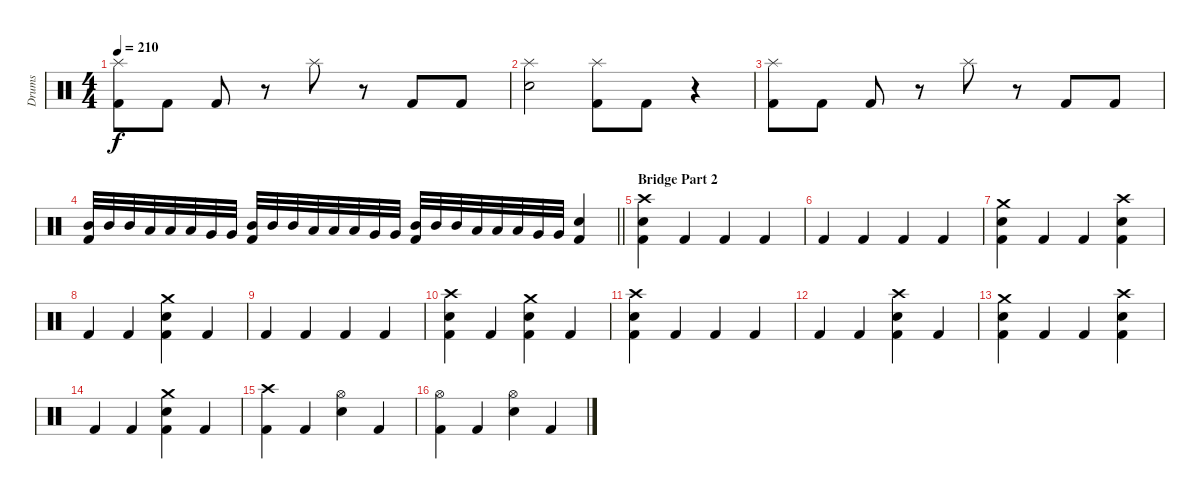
\track ("Drums" "Drums") {instrument percussion}
\staff {score}
\articulation defaults
\ts (4 4)
\tempo 210
\clef neutral
\ks c
("Splash (hit)" "Kick (hit) 2").8{dy f} "Kick (hit) 2".8 "Kick (hit) 2".8 r.8 "Splash (hit)".8 r.8 "Kick (hit) 2".8 "Kick (hit) 2".8 |
("Splash (hit)" "Snare (hit) 2").2 ("Splash (hit)" "Kick (hit) 2").8 "Kick (hit) 2".8 r.4 |
("Splash (hit)" "Kick (hit) 2").8 "Kick (hit) 2".8 "Kick (hit) 2".8 r.8 "Splash (hit)".8 r.8 "Kick (hit) 2".8 "Kick (hit) 2".8 |
\barLineRight lightlight
("Mid Tom (hit)" "Kick (hit) 2").32 "Mid Tom (hit)".32 "Mid Tom (hit)".32 "Low Tom (hit)".32 "Low Tom (hit)".32 "Low Tom (hit)".32 "Very Low Tom (hit)".32 "Very Low Tom (hit)".32 ("Mid Tom (hit)" "Kick (hit) 2").32 "Mid Tom (hit)".32 "Mid Tom (hit)".32 "Low Tom (hit)".32 "Low Tom (hit)".32 "Low Tom (hit)".32 "Very Low Tom (hit)".32 "Very Low Tom (hit)".32 ("Mid Tom (hit)" "Kick (hit) 2").32 "Mid Tom (hit)".32 "Mid Tom (hit)".32 "Low Tom (hit)".32 "Low Tom (hit)".32 "Low Tom (hit)".32 "Very Low Tom (hit)".32 "Very Low Tom (hit)".32 ("Snare (hit) 2" "Kick (hit) 2").4 |
\section ("" "Bridge Part 2")
("Crash high (hit)" "Snare (hit) 2" "Kick (hit) 2").4 "Kick (hit) 2".4 "Kick (hit) 2".4 "Kick (hit) 2".4 |
"Kick (hit) 2".4 "Kick (hit) 2".4 "Kick (hit) 2".4 "Kick (hit) 2".4 |
("Crash medium (hit)" "Snare (hit) 2" "Kick (hit) 2").4 "Kick (hit) 2".4 "Kick (hit) 2".4 ("Crash high (hit)" "Snare (hit) 2" "Kick (hit) 2").4 |
"Kick (hit) 2".4 "Kick (hit) 2".4 ("Crash medium (hit)" "Snare (hit) 2" "Kick (hit) 2").4 "Kick (hit) 2".4 |
"Kick (hit) 2".4 "Kick (hit) 2".4 "Kick (hit) 2".4 "Kick (hit) 2".4 |
("Crash high (hit)" "Snare (hit) 2" "Kick (hit) 2").4 "Kick (hit) 2".4 ("Crash medium (hit)" "Snare (hit) 2" "Kick (hit) 2").4 "Kick (hit) 2".4 |
("Crash high (hit)" "Snare (hit) 2" "Kick (hit) 2").4 "Kick (hit) 2".4 "Kick (hit) 2".4 "Kick (hit) 2".4 |
"Kick (hit) 2".4 "Kick (hit) 2".4 ("Crash high (hit)" "Snare (hit) 2" "Kick (hit) 2").4 "Kick (hit) 2".4 |
("Crash medium (hit)" "Snare (hit) 2" "Kick (hit) 2").4 "Kick (hit) 2".4 "Kick (hit) 2".4 ("Crash high (hit)" "Snare (hit) 2" "Kick (hit) 2").4 |
"Kick (hit) 2".4 "Kick (hit) 2".4 ("Crash medium (hit)" "Snare (hit) 2" "Kick (hit) 2").4 "Kick (hit) 2".4 |
("Crash high (hit)" "Kick (hit) 2").4 "Kick (hit) 2".4 ("Hi-Hat (open)" "Snare (hit) 2").4 "Kick (hit) 2".4 |
("Hi-Hat (open)" "Kick (hit) 2").4 "Kick (hit) 2".4 ("Hi-Hat (open)" "Snare (hit) 2").4 "Kick (hit) 2".4
